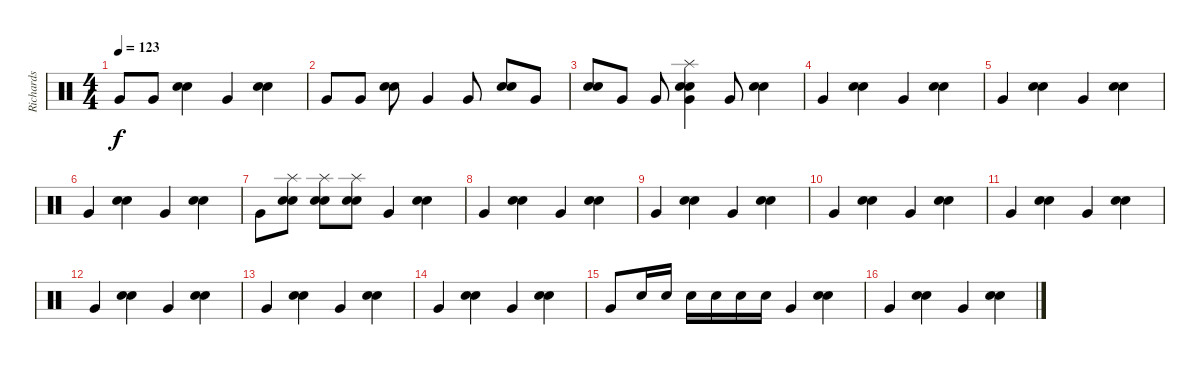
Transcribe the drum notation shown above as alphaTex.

\track ("Richards" "Richards") {instrument percussion}
\staff {score}
\articulation defaults
\ts (4 4)
\tempo 123
\clef neutral
\ks c "Very Low Tom (hit)".8{dy f} "Very Low Tom (hit)".8
("Snare (hit) 2" "Electric Snare (hit)").4 "Very Low Tom (hit)".4 ("Snare (hit) 2" "Electric Snare (hit)").4 |
"Very Low Tom (hit)".8 "Very Low Tom (hit)".8 ("Snare (hit) 2" "Electric Snare (hit)").8 "Very Low Tom (hit)".4 "Very Low Tom (hit)".8 ("Snare (hit) 2" "Electric Snare (hit)").8 "Very Low Tom (hit)".8 |
("Snare (hit) 2" "Electric Snare (hit)").8 "Very Low Tom (hit)".8 "Very Low Tom (hit)".8 ("Splash (hit)" "Snare (hit) 2" "Electric Snare (hit)" "Very Low Tom (hit)").4 "Very Low Tom (hit)".8 ("Snare (hit) 2" "Electric Snare (hit)").4 |
"Very Low Tom (hit)".4 ("Snare (hit) 2" "Electric Snare (hit)").4 "Very Low Tom (hit)".4 ("Snare (hit) 2" "Electric Snare (hit)").4 |
"Very Low Tom (hit)".4 ("Snare (hit) 2" "Electric Snare (hit)").4 "Very Low Tom (hit)".4 ("Snare (hit) 2" "Electric Snare (hit)").4 |
"Very Low Tom (hit)".4 ("Snare (hit) 2" "Electric Snare (hit)").4 "Very Low Tom (hit)".4 ("Snare (hit) 2" "Electric Snare (hit)").4 |
"Very Low Tom (hit)".8 ("Splash (hit)" "Snare (hit) 2" "Electric Snare (hit)").8 ("Splash (hit)" "Snare (hit) 2" "Electric Snare (hit)").8 ("Splash (hit)" "Snare (hit) 2" "Electric Snare (hit)").8 "Very Low Tom (hit)".4 ("Snare (hit) 2" "Electric Snare (hit)").4 |
"Very Low Tom (hit)".4 ("Snare (hit) 2" "Electric Snare (hit)").4 "Very Low Tom (hit)".4 ("Snare (hit) 2" "Electric Snare (hit)").4 |
"Very Low Tom (hit)".4 ("Snare (hit) 2" "Electric Snare (hit)").4 "Very Low Tom (hit)".4 ("Snare (hit) 2" "Electric Snare (hit)").4 |
"Very Low Tom (hit)".4 ("Snare (hit) 2" "Electric Snare (hit)").4 "Very Low Tom (hit)".4 ("Snare (hit) 2" "Electric Snare (hit)").4 |
"Very Low Tom (hit)".4 ("Snare (hit) 2" "Electric Snare (hit)").4 "Very Low Tom (hit)".4 ("Snare (hit) 2" "Electric Snare (hit)").4 |
"Very Low Tom (hit)".4 ("Snare (hit) 2" "Electric Snare (hit)").4 "Very Low Tom (hit)".4 ("Snare (hit) 2" "Electric Snare (hit)").4 |
"Very Low Tom (hit)".4 ("Snare (hit) 2" "Electric Snare (hit)").4 "Very Low Tom (hit)".4 ("Snare (hit) 2" "Electric Snare (hit)").4 |
"Very Low Tom (hit)".4 ("Snare (hit) 2" "Electric Snare (hit)").4 "Very Low Tom (hit)".4 ("Snare (hit) 2" "Electric Snare (hit)").4 |
"Very Low Tom (hit)".8 "Snare (hit) 2".16 "Snare (hit) 2".16 "Snare (hit) 2".16 "Snare (hit) 2".16 "Snare (hit) 2".16 "Snare (hit) 2".16 "Very Low Tom (hit)".4 ("Snare (hit) 2" "Electric Snare (hit)").4 |
"Very Low Tom (hit)".4 ("Snare (hit) 2" "Electric Snare (hit)").4 "Very Low Tom (hit)".4 ("Snare (hit) 2" "Electric Snare (hit)").4
